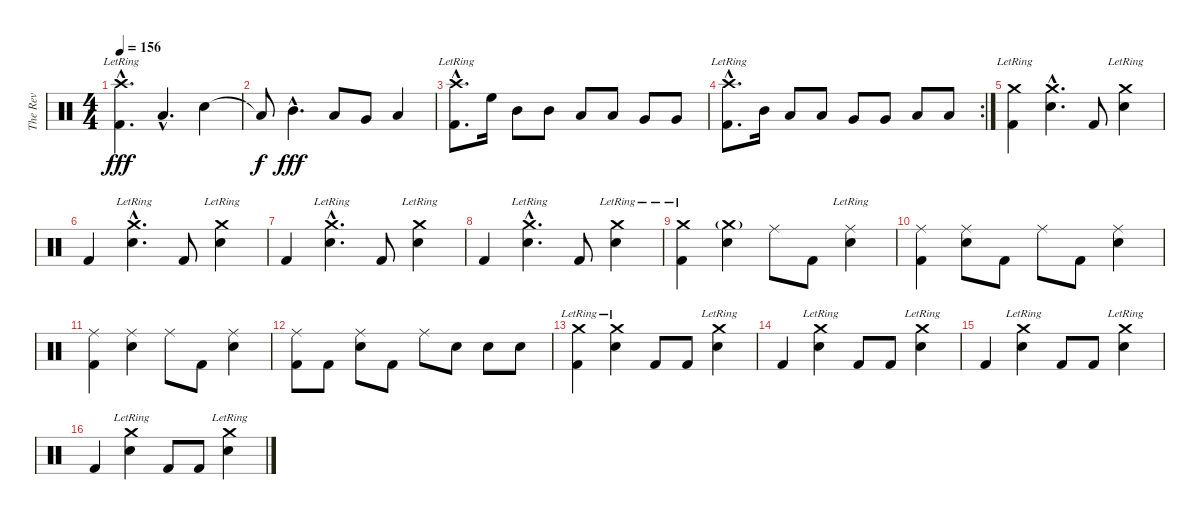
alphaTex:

\track ("The Rev" "The Rev") {instrument percussion}
\staff {score}
\articulation defaults
\ts (4 4)
\tempo 156
\clef neutral
\ks c
("Crash high (hit)"{hac lr} "Kick (hit) 2"{hac}).4{d dy fff} "Low Tom (hit)"{hac}.4{d} "Electric Snare (hit)".4 |
"Low Tom (hit)"{t}.8{dy f} "Mid Tom (hit)"{hac}.4{d dy fff} "Low Tom (hit)".8 "Very Low Tom (hit)".8 "Low Floor Tom (hit)".4 |
("Crash high (hit)"{hac lr} "Kick (hit) 2"{hac}).8{d} "High Floor Tom (hit)".16 "Mid Tom (hit)".8 "Mid Tom (hit)".8 "Low Tom (hit)".8 "Low Tom (hit)".8 "Very Low Tom (hit)".8 "Very Low Tom (hit)".8 |
\rc 2
("Crash high (hit)"{hac lr} "Kick (hit) 2"{hac}).8{d} "Mid Tom (hit)".16 "Low Tom (hit)".8 "Low Tom (hit)".8 "Very Low Tom (hit)".8 "Very Low Tom (hit)".8 "Low Floor Tom (hit)".8 "Low Floor Tom (hit)".8 |
("Crash medium (hit)"{lr} "Kick (hit) 2").4 ("Crash medium (hit)"{hac} "Electric Snare (hit)"{hac}).4{d} "Kick (hit) 2".8 ("Crash medium (hit)"{lr} "Electric Snare (hit)").4 |
"Kick (hit) 2".4 ("Crash medium (hit)"{hac lr} "Electric Snare (hit)"{hac}).4{d} "Kick (hit) 2".8 ("Crash medium (hit)"{lr} "Electric Snare (hit)").4 |
"Kick (hit) 2".4 ("Crash medium (hit)"{hac lr} "Electric Snare (hit)"{hac}).4{d} "Kick (hit) 2".8 ("Crash medium (hit)"{lr} "Electric Snare (hit)").4 |
"Kick (hit) 2".4 ("Crash medium (hit)"{hac lr} "Electric Snare (hit)"{hac}).4{d} "Kick (hit) 2".8 ("Crash medium (hit)"{lr} "Electric Snare (hit)").4 |
("Crash medium (hit)"{lr} "Kick (hit) 2").4 ("Crash medium (hit)"{g} "Electric Snare (hit)").4 "Ride (middle)".8 "Kick (hit) 2".8 ("Ride (middle)"{lr} "Electric Snare (hit)").4 |
("Ride (middle)" "Kick (hit) 2").4 ("Ride (middle)" "Electric Snare (hit)").8 "Kick (hit) 2".8 "Ride (middle)".8 "Kick (hit) 2".8 ("Ride (middle)" "Electric Snare (hit)").4 |
("Ride (middle)" "Kick (hit) 2").4 ("Ride (middle)" "Electric Snare (hit)").4 "Ride (middle)".8 "Kick (hit) 2".8 ("Ride (middle)" "Electric Snare (hit)").4 |
("Ride (middle)" "Kick (hit) 2").8 "Kick (hit) 2".8 ("Ride (middle)" "Electric Snare (hit)").8 "Kick (hit) 2".8 "Ride (middle)".8 "Electric Snare (hit)".8 "Electric Snare (hit)".8 "Electric Snare (hit)".8 |
("Crash medium (hit)"{lr} "Kick (hit) 2").4 ("Crash medium (hit)"{lr} "Electric Snare (hit)").4 "Kick (hit) 2".8 "Kick (hit) 2".8 ("Crash medium (hit)"{lr} "Electric Snare (hit)").4 |
"Kick (hit) 2".4 ("Crash medium (hit)"{lr} "Electric Snare (hit)").4 "Kick (hit) 2".8 "Kick (hit) 2".8 ("Crash medium (hit)"{lr} "Electric Snare (hit)").4 |
"Kick (hit) 2".4 ("Crash medium (hit)"{lr} "Electric Snare (hit)").4 "Kick (hit) 2".8 "Kick (hit) 2".8 ("Crash medium (hit)"{lr} "Electric Snare (hit)").4 |
"Kick (hit) 2".4 ("Crash medium (hit)"{lr} "Electric Snare (hit)").4 "Kick (hit) 2".8 "Kick (hit) 2".8 ("Crash medium (hit)"{lr} "Electric Snare (hit)").4
